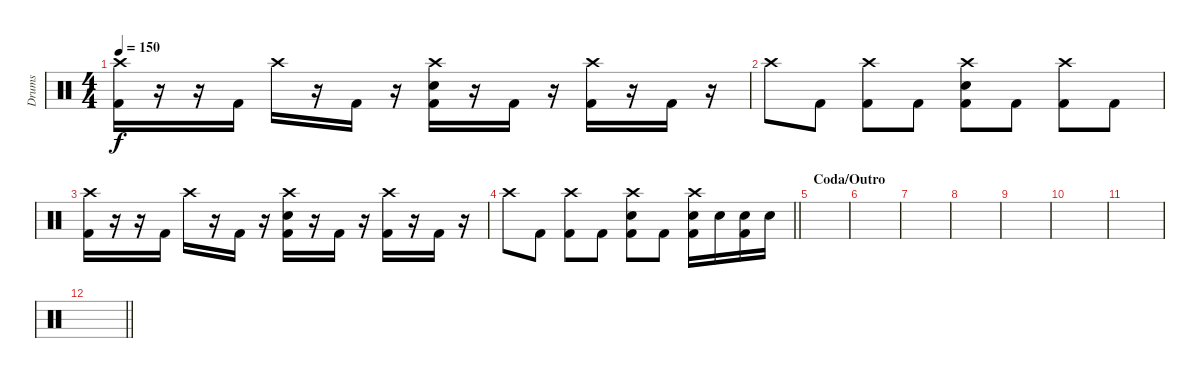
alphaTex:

\track ("Drums" "Drums") {instrument percussion}
\staff {score}
\articulation defaults
\ts (4 4)
\tempo 150
\clef neutral
\ks c
("Crash high (hit)" "Kick (hit) 2").16{dy f} r.16 r.16 "Kick (hit) 2".16 "Crash high (hit)".16 r.16 "Kick (hit) 2".16 r.16 ("Crash high (hit)" "Snare (hit) 2" "Kick (hit) 2").16 r.16 "Kick (hit) 2".16 r.16 ("Crash high (hit)" "Kick (hit) 2").16 r.16 "Kick (hit) 2".16 r.16 |
"Crash high (hit)".8 "Kick (hit) 2".8 ("Crash high (hit)" "Kick (hit) 2").8 "Kick (hit) 2".8 ("Crash high (hit)" "Snare (hit) 2" "Kick (hit) 2").8 "Kick (hit) 2".8 ("Crash high (hit)" "Kick (hit) 2").8 "Kick (hit) 2".8 |
("Crash high (hit)" "Kick (hit) 2").16 r.16 r.16 "Kick (hit) 2".16 "Crash high (hit)".16 r.16 "Kick (hit) 2".16 r.16 ("Crash high (hit)" "Snare (hit) 2" "Kick (hit) 2").16 r.16 "Kick (hit) 2".16 r.16 ("Crash high (hit)" "Kick (hit) 2").16 r.16 "Kick (hit) 2".16 r.16 |
\barLineRight lightlight "Crash high (hit)".8 "Kick (hit) 2".8
("Crash high (hit)" "Kick (hit) 2").8 "Kick (hit) 2".8 ("Crash high (hit)" "Snare (hit) 2" "Kick (hit) 2").8 "Kick (hit) 2".8 ("Crash high (hit)" "Snare (hit) 2" "Kick (hit) 2").16 "Snare (hit) 2".16 ("Snare (hit) 2" "Kick (hit) 2").16 "Snare (hit) 2".16 |
\section ("" "Coda/Outro")
|
|
|
|
|
|
|
\barLineRight lightlight
